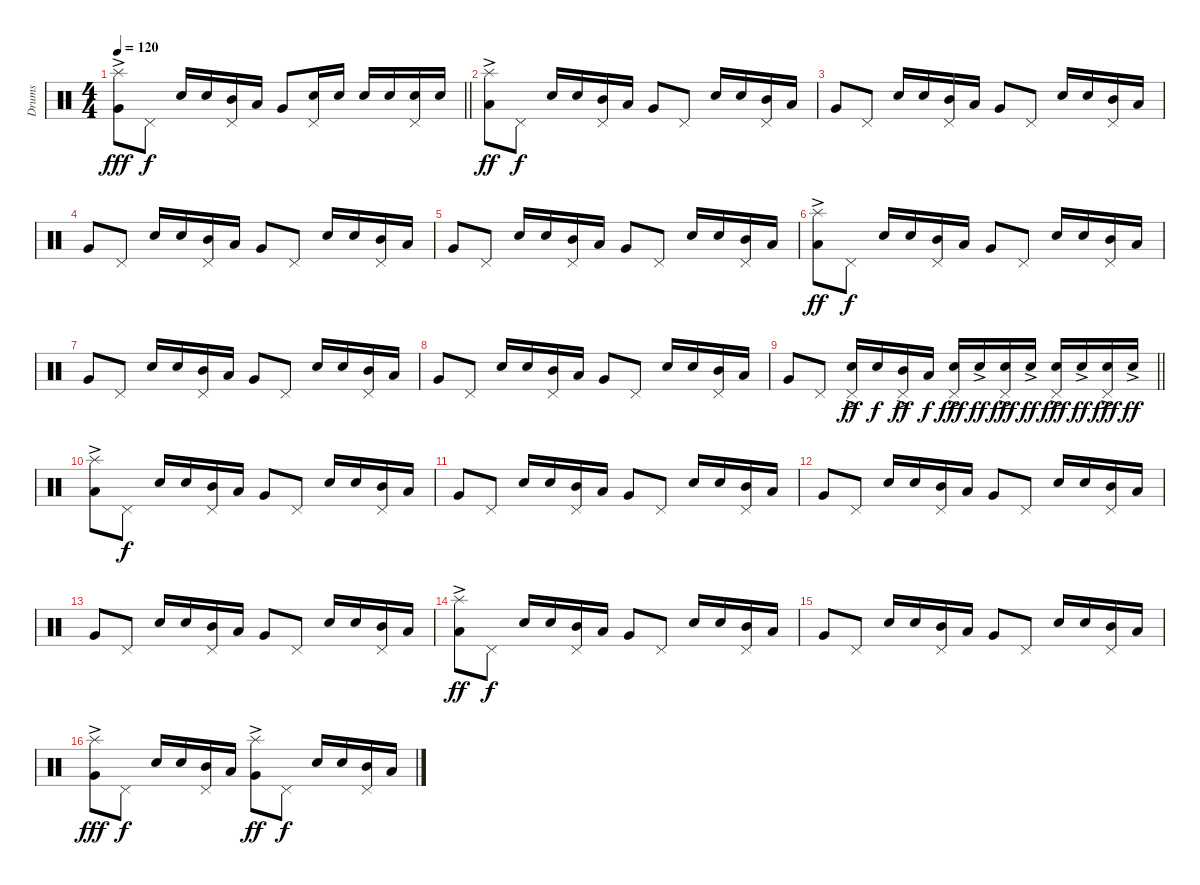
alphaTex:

\track ("Drums" "Drums") {instrument percussion}
\staff {score}
\articulation defaults
\ts (4 4)
\tempo 120
\clef neutral
\barLineRight lightlight
\ks c
("Splash (hit)"{ac} "Very Low Tom (hit)").8{dy fff} "Pedal Hi-Hat (hit)".8{dy f} "Snare (hit) 2".16 "Snare (hit) 2".16 ("Mid Tom (hit)" "Pedal Hi-Hat (hit)").16 "Low Tom (hit)".16 "Very Low Tom (hit)".8 ("Snare (hit) 2" "Pedal Hi-Hat (hit)").16 "Snare (hit) 2".16 "Snare (hit) 2".16 "Snare (hit) 2".16 ("Snare (hit) 2" "Pedal Hi-Hat (hit)").16 "Snare (hit) 2".16 |
("Splash (hit)"{ac} "Low Tom (hit)").8{dy ff} "Pedal Hi-Hat (hit)".8{dy f} "Snare (hit) 2".16 "Snare (hit) 2".16 ("Mid Tom (hit)" "Pedal Hi-Hat (hit)").16 "Low Tom (hit)".16 "Very Low Tom (hit)".8 "Pedal Hi-Hat (hit)".8 "Snare (hit) 2".16 "Snare (hit) 2".16 ("Mid Tom (hit)" "Pedal Hi-Hat (hit)").16 "Low Tom (hit)".16 |
"Very Low Tom (hit)".8 "Pedal Hi-Hat (hit)".8 "Snare (hit) 2".16 "Snare (hit) 2".16 ("Mid Tom (hit)" "Pedal Hi-Hat (hit)").16 "Low Tom (hit)".16 "Very Low Tom (hit)".8 "Pedal Hi-Hat (hit)".8 "Snare (hit) 2".16 "Snare (hit) 2".16 ("Mid Tom (hit)" "Pedal Hi-Hat (hit)").16 "Low Tom (hit)".16 |
"Very Low Tom (hit)".8 "Pedal Hi-Hat (hit)".8 "Snare (hit) 2".16 "Snare (hit) 2".16 ("Mid Tom (hit)" "Pedal Hi-Hat (hit)").16 "Low Tom (hit)".16 "Very Low Tom (hit)".8 "Pedal Hi-Hat (hit)".8 "Snare (hit) 2".16 "Snare (hit) 2".16 ("Mid Tom (hit)" "Pedal Hi-Hat (hit)").16 "Low Tom (hit)".16 |
"Very Low Tom (hit)".8 "Pedal Hi-Hat (hit)".8 "Snare (hit) 2".16 "Snare (hit) 2".16 ("Mid Tom (hit)" "Pedal Hi-Hat (hit)").16 "Low Tom (hit)".16 "Very Low Tom (hit)".8 "Pedal Hi-Hat (hit)".8 "Snare (hit) 2".16 "Snare (hit) 2".16 ("Mid Tom (hit)" "Pedal Hi-Hat (hit)").16 "Low Tom (hit)".16 |
("Splash (hit)"{ac} "Low Tom (hit)").8{dy ff} "Pedal Hi-Hat (hit)".8{dy f} "Snare (hit) 2".16 "Snare (hit) 2".16 ("Mid Tom (hit)" "Pedal Hi-Hat (hit)").16 "Low Tom (hit)".16 "Very Low Tom (hit)".8 "Pedal Hi-Hat (hit)".8 "Snare (hit) 2".16 "Snare (hit) 2".16 ("Mid Tom (hit)" "Pedal Hi-Hat (hit)").16 "Low Tom (hit)".16 |
"Very Low Tom (hit)".8 "Pedal Hi-Hat (hit)".8 "Snare (hit) 2".16 "Snare (hit) 2".16 ("Mid Tom (hit)" "Pedal Hi-Hat (hit)").16 "Low Tom (hit)".16 "Very Low Tom (hit)".8 "Pedal Hi-Hat (hit)".8 "Snare (hit) 2".16 "Snare (hit) 2".16 ("Mid Tom (hit)" "Pedal Hi-Hat (hit)").16 "Low Tom (hit)".16 |
"Very Low Tom (hit)".8 "Pedal Hi-Hat (hit)".8 "Snare (hit) 2".16 "Snare (hit) 2".16 ("Mid Tom (hit)" "Pedal Hi-Hat (hit)").16 "Low Tom (hit)".16 "Very Low Tom (hit)".8 "Pedal Hi-Hat (hit)".8 "Snare (hit) 2".16 "Snare (hit) 2".16 ("Mid Tom (hit)" "Pedal Hi-Hat (hit)").16 "Low Tom (hit)".16 |
\barLineRight lightlight "Very Low Tom (hit)".8 "Pedal Hi-Hat (hit)".8
("Snare (hit) 2" "Pedal Hi-Hat (hit)"{ac}).16{dy ff} "Snare (hit) 2".16{dy f} ("Mid Tom (hit)" "Pedal Hi-Hat (hit)"{ac}).16{dy ff} "Low Tom (hit)".16{dy f} ("Snare (hit) 2"{ac} "Pedal Hi-Hat (hit)"{ac}).16{dy fff} "Snare (hit) 2"{ac}.16{dy ff} ("Snare (hit) 2"{ac} "Pedal Hi-Hat (hit)"{ac}).16{dy fff} "Snare (hit) 2"{ac}.16{dy ff} ("Snare (hit) 2"{ac} "Pedal Hi-Hat (hit)"{ac}).16{dy fff} "Snare (hit) 2"{ac}.16{dy ff} ("Snare (hit) 2"{ac} "Pedal Hi-Hat (hit)"{ac}).16{dy fff} "Snare (hit) 2"{ac}.16{dy ff} |
("Splash (hit)"{ac} "Low Tom (hit)").8 "Pedal Hi-Hat (hit)".8{dy f} "Snare (hit) 2".16 "Snare (hit) 2".16 ("Mid Tom (hit)" "Pedal Hi-Hat (hit)").16 "Low Tom (hit)".16 "Very Low Tom (hit)".8 "Pedal Hi-Hat (hit)".8 "Snare (hit) 2".16 "Snare (hit) 2".16 ("Mid Tom (hit)" "Pedal Hi-Hat (hit)").16 "Low Tom (hit)".16 |
"Very Low Tom (hit)".8 "Pedal Hi-Hat (hit)".8 "Snare (hit) 2".16 "Snare (hit) 2".16 ("Mid Tom (hit)" "Pedal Hi-Hat (hit)").16 "Low Tom (hit)".16 "Very Low Tom (hit)".8 "Pedal Hi-Hat (hit)".8 "Snare (hit) 2".16 "Snare (hit) 2".16 ("Mid Tom (hit)" "Pedal Hi-Hat (hit)").16 "Low Tom (hit)".16 |
"Very Low Tom (hit)".8 "Pedal Hi-Hat (hit)".8 "Snare (hit) 2".16 "Snare (hit) 2".16 ("Mid Tom (hit)" "Pedal Hi-Hat (hit)").16 "Low Tom (hit)".16 "Very Low Tom (hit)".8 "Pedal Hi-Hat (hit)".8 "Snare (hit) 2".16 "Snare (hit) 2".16 ("Mid Tom (hit)" "Pedal Hi-Hat (hit)").16 "Low Tom (hit)".16 |
"Very Low Tom (hit)".8 "Pedal Hi-Hat (hit)".8 "Snare (hit) 2".16 "Snare (hit) 2".16 ("Mid Tom (hit)" "Pedal Hi-Hat (hit)").16 "Low Tom (hit)".16 "Very Low Tom (hit)".8 "Pedal Hi-Hat (hit)".8 "Snare (hit) 2".16 "Snare (hit) 2".16 ("Mid Tom (hit)" "Pedal Hi-Hat (hit)").16 "Low Tom (hit)".16 |
("Splash (hit)"{ac} "Low Tom (hit)").8{dy ff} "Pedal Hi-Hat (hit)".8{dy f} "Snare (hit) 2".16 "Snare (hit) 2".16 ("Mid Tom (hit)" "Pedal Hi-Hat (hit)").16 "Low Tom (hit)".16 "Very Low Tom (hit)".8 "Pedal Hi-Hat (hit)".8 "Snare (hit) 2".16 "Snare (hit) 2".16 ("Mid Tom (hit)" "Pedal Hi-Hat (hit)").16 "Low Tom (hit)".16 |
"Very Low Tom (hit)".8 "Pedal Hi-Hat (hit)".8 "Snare (hit) 2".16 "Snare (hit) 2".16 ("Mid Tom (hit)" "Pedal Hi-Hat (hit)").16 "Low Tom (hit)".16 "Very Low Tom (hit)".8 "Pedal Hi-Hat (hit)".8 "Snare (hit) 2".16 "Snare (hit) 2".16 ("Mid Tom (hit)" "Pedal Hi-Hat (hit)").16 "Low Tom (hit)".16 |
("Splash (hit)"{ac} "Very Low Tom (hit)").8{dy fff} "Pedal Hi-Hat (hit)".8{dy f} "Snare (hit) 2".16 "Snare (hit) 2".16 ("Mid Tom (hit)" "Pedal Hi-Hat (hit)").16 "Low Tom (hit)".16 ("Splash (hit)"{ac} "Very Low Tom (hit)").8{dy ff} "Pedal Hi-Hat (hit)".8{dy f} "Snare (hit) 2".16 "Snare (hit) 2".16 ("Mid Tom (hit)" "Pedal Hi-Hat (hit)").16 "Low Tom (hit)".16
